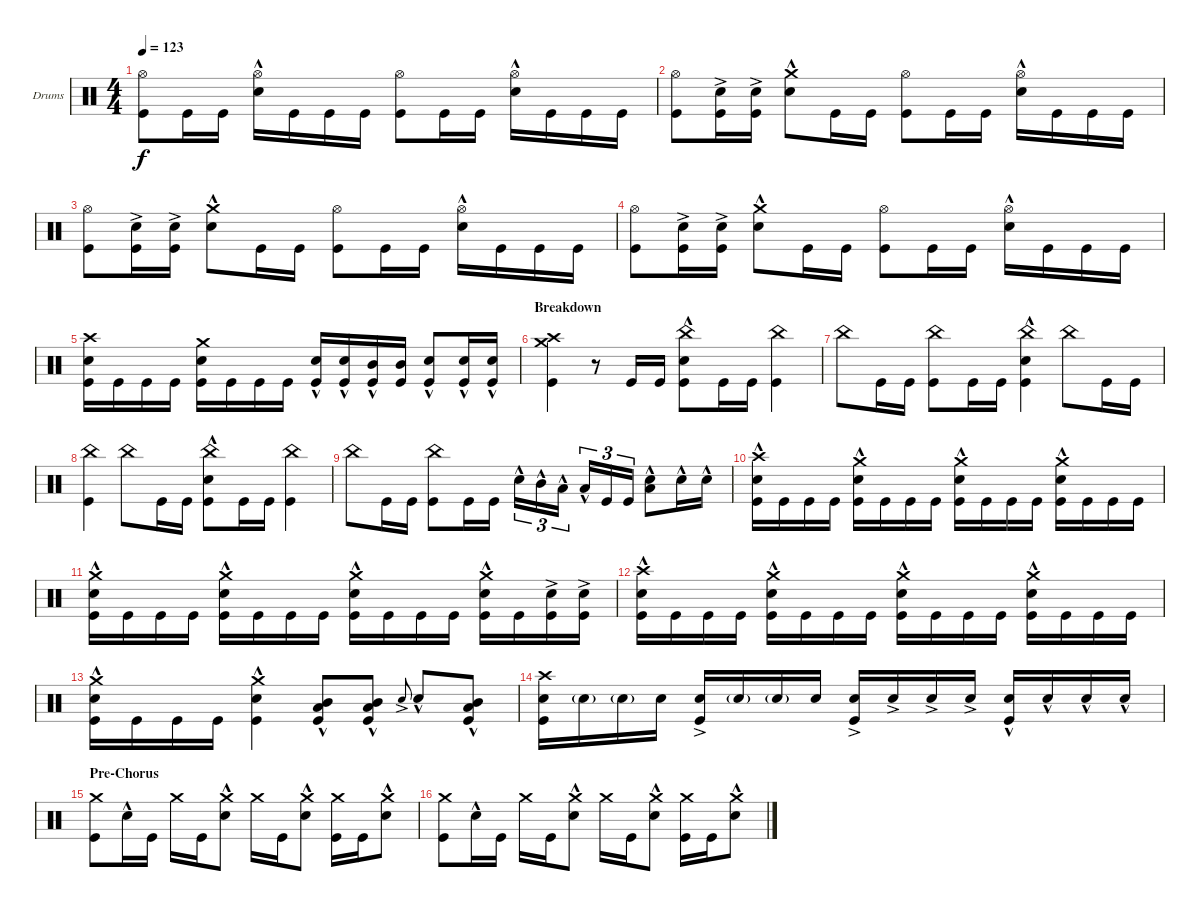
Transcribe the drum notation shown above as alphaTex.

\bracketExtendMode groupsimilarinstruments
\firstSystemTrackNameOrientation horizontal
\otherSystemsTrackNameOrientation horizontal
\track ("Drumkit" "Drums") {instrument percussion}
\staff {score}
\articulation defaults
\ts (4 4)
\tempo 123
\clef neutral
\ks aminor
("Kick (hit)" "Hi-Hat (open)").8{dy f} "Kick (hit)".16 "Kick (hit)".16 ("Hi-Hat (open)" "Snare (hit) 2"{hac}).16 "Kick (hit)".16 "Kick (hit)".16 "Kick (hit)".16 ("Kick (hit)" "Hi-Hat (open)").8 "Kick (hit)".16 "Kick (hit)".16 ("Hi-Hat (open)" "Snare (hit) 2"{hac}).16 "Kick (hit)".16 "Kick (hit)".16 "Kick (hit)".16 |
("Kick (hit)" "Hi-Hat (open)").8 ("Kick (hit)" "Snare (hit) 2"{ac}).16 ("Kick (hit)" "Snare (hit) 2"{ac}).16 ("Snare (hit) 2"{hac} "Crash medium (hit)").8 "Kick (hit)".16 "Kick (hit)".16 ("Kick (hit)" "Hi-Hat (open)").8 "Kick (hit)".16 "Kick (hit)".16 ("Hi-Hat (open)" "Snare (hit) 2"{hac}).16 "Kick (hit)".16 "Kick (hit)".16 "Kick (hit)".16 |
("Kick (hit)" "Hi-Hat (open)").8 ("Kick (hit)" "Snare (hit) 2"{ac}).16 ("Kick (hit)" "Snare (hit) 2"{ac}).16 ("Snare (hit) 2"{hac} "Crash medium (hit)").8 "Kick (hit)".16 "Kick (hit)".16 ("Kick (hit)" "Hi-Hat (open)").8 "Kick (hit)".16 "Kick (hit)".16 ("Hi-Hat (open)" "Snare (hit) 2"{hac}).16 "Kick (hit)".16 "Kick (hit)".16 "Kick (hit)".16 |
("Kick (hit)" "Hi-Hat (open)").8 ("Kick (hit)" "Snare (hit) 2"{ac}).16 ("Kick (hit)" "Snare (hit) 2"{ac}).16 ("Snare (hit) 2"{hac} "Crash medium (hit)").8 "Kick (hit)".16 "Kick (hit)".16 ("Kick (hit)" "Hi-Hat (open)").8 "Kick (hit)".16 "Kick (hit)".16 ("Hi-Hat (open)" "Snare (hit) 2"{hac}).16 "Kick (hit)".16 "Kick (hit)".16 "Kick (hit)".16 |
("Kick (hit)" "Snare (hit) 2" "Crash high (hit)").16 "Kick (hit)".16 "Kick (hit)".16 "Kick (hit)".16 ("Kick (hit)" "Snare (hit) 2" "Crash medium (hit)").16 "Kick (hit)".16 "Kick (hit)".16 "Kick (hit)".16 ("Kick (hit)" "Snare (hit) 2"{hac}).16 ("Kick (hit)" "Snare (hit) 2"{hac}).16 ("Kick (hit)" "Mid Tom (hit)"{hac}).16 ("Kick (hit)" "Mid Tom (hit)").16 ("Kick (hit)" "Snare (hit) 2"{hac}).8 ("Kick (hit)" "Snare (hit) 2"{hac}).16 ("Kick (hit)" "Snare (hit) 2"{hac}).16 |
\section ("" "Breakdown")
("Kick (hit)" "Crash medium (hit)" "Crash high (hit)").4 r.8 "Kick (hit)".16 "Kick (hit)".16 ("Kick (hit)" "China (hit)" "Snare (hit) 2"{hac}).8 "Kick (hit)".16 "Kick (hit)".16 ("Kick (hit)" "China (hit)").4 |
"China (hit)".8 "Kick (hit)".16 "Kick (hit)".16 ("China (hit)" "Kick (hit)").8 "Kick (hit)".16 "Kick (hit)".16 ("China (hit)" "Kick (hit)" "Snare (hit) 2"{hac}).4 "China (hit)".8 "Kick (hit)".16 "Kick (hit)".16 |
("Kick (hit)" "China (hit)").4 "China (hit)".8 "Kick (hit)".16 "Kick (hit)".16 ("Kick (hit)" "China (hit)" "Snare (hit) 2"{hac}).8 "Kick (hit)".16 "Kick (hit)".16 ("Kick (hit)" "China (hit)").4 |
"China (hit)".8 "Kick (hit)".16 "Kick (hit)".16 ("China (hit)" "Kick (hit)").8 "Kick (hit)".16 "Kick (hit)".16 "Snare (hit) 2"{hac}.16{tu (3 2)} "Mid Tom (hit)"{hac}.16{tu (3 2)} "Low Tom (hit)"{hac}.16{tu (3 2)} "Low Tom (hit)"{hac}.16{tu (3 2)} "Kick (hit)".16{tu (3 2)} "Kick (hit)".16{tu (3 2)} ("Snare (hit) 2"{hac} "Low Tom (hit)"{hac}).8 "Snare (hit) 2"{hac}.16 "Snare (hit) 2"{hac}.16 |
("Kick (hit)" "Snare (hit) 2"{hac} "Crash high (hit)").16 "Kick (hit)".16 "Kick (hit)".16 "Kick (hit)".16 ("Kick (hit)" "Snare (hit) 2"{hac} "Crash medium (hit)").16 "Kick (hit)".16 "Kick (hit)".16 "Kick (hit)".16 ("Kick (hit)" "Snare (hit) 2"{hac} "Crash medium (hit)").16 "Kick (hit)".16 "Kick (hit)".16 "Kick (hit)".16 ("Kick (hit)" "Snare (hit) 2"{hac} "Crash medium (hit)").16 "Kick (hit)".16 "Kick (hit)".16 "Kick (hit)".16 |
("Kick (hit)" "Snare (hit) 2"{hac} "Crash medium (hit)").16 "Kick (hit)".16 "Kick (hit)".16 "Kick (hit)".16 ("Kick (hit)" "Snare (hit) 2"{hac} "Crash medium (hit)").16 "Kick (hit)".16 "Kick (hit)".16 "Kick (hit)".16 ("Kick (hit)" "Snare (hit) 2"{hac} "Crash medium (hit)").16 "Kick (hit)".16 "Kick (hit)".16 "Kick (hit)".16 ("Kick (hit)" "Snare (hit) 2"{hac} "Crash medium (hit)").16 "Kick (hit)".16 ("Kick (hit)" "Snare (hit) 2"{ac}).16 ("Kick (hit)" "Snare (hit) 2"{ac}).16 |
("Kick (hit)" "Snare (hit) 2"{hac} "Crash high (hit)").16 "Kick (hit)".16 "Kick (hit)".16 "Kick (hit)".16 ("Kick (hit)" "Snare (hit) 2"{hac} "Crash medium (hit)").16 "Kick (hit)".16 "Kick (hit)".16 "Kick (hit)".16 ("Kick (hit)" "Snare (hit) 2"{hac} "Crash medium (hit)").16 "Kick (hit)".16 "Kick (hit)".16 "Kick (hit)".16 ("Kick (hit)" "Snare (hit) 2"{hac} "Crash medium (hit)").16 "Kick (hit)".16 "Kick (hit)".16 "Kick (hit)".16 |
("Kick (hit)" "Snare (hit) 2"{hac} "Crash medium (hit)").16 "Kick (hit)".16 "Kick (hit)".16 "Kick (hit)".16 ("Kick (hit)" "Snare (hit) 2"{hac} "Crash medium (hit)").4 ("Low Tom (hit)"{hac} "Mid Tom (hit)"{hac} "Kick (hit)").8 ("Low Tom (hit)"{hac} "Mid Tom (hit)"{hac} "Kick (hit)").8 "Snare (hit) 2"{ac}.8{gr onbeat} "Snare (hit) 2"{hac}.8 ("Low Tom (hit)"{hac} "Mid Tom (hit)"{hac} "Kick (hit)").8 |
("Kick (hit)" "Crash high (hit)" "Snare (hit) 2").16 "Snare (hit) 2"{g}.16 "Snare (hit) 2"{g}.16 "Snare (hit) 2".16 ("Snare (hit) 2"{ac} "Kick (hit)").16 "Snare (hit) 2"{g}.16 "Snare (hit) 2"{g}.16 "Snare (hit) 2".16 ("Snare (hit) 2"{ac} "Kick (hit)").16 "Snare (hit) 2"{ac}.16 "Snare (hit) 2"{ac}.16 "Snare (hit) 2"{ac}.16 ("Snare (hit) 2"{hac} "Kick (hit)").16 "Snare (hit) 2"{hac}.16 "Snare (hit) 2"{hac}.16 "Snare (hit) 2"{hac}.16 |
\section ("" "Pre-Chorus")
("Kick (hit)" "Crash medium (hit)").8 "Snare (hit) 2"{hac}.16 "Kick (hit)".16 "Crash medium (hit)".16 "Kick (hit)".16 ("Snare (hit) 2"{hac} "Crash medium (hit)").8 "Crash medium (hit)".16 "Kick (hit)".16 ("Snare (hit) 2"{hac} "Crash medium (hit)").8 ("Crash medium (hit)" "Kick (hit)").16 "Kick (hit)".16 ("Snare (hit) 2"{hac} "Crash medium (hit)").8 |
("Kick (hit)" "Crash medium (hit)").8 "Snare (hit) 2"{hac}.16 "Kick (hit)".16 "Crash medium (hit)".16 "Kick (hit)".16 ("Snare (hit) 2"{hac} "Crash medium (hit)").8 "Crash medium (hit)".16 "Kick (hit)".16 ("Snare (hit) 2"{hac} "Crash medium (hit)").8 ("Crash medium (hit)" "Kick (hit)").16 "Kick (hit)".16 ("Snare (hit) 2"{hac} "Crash medium (hit)").8
